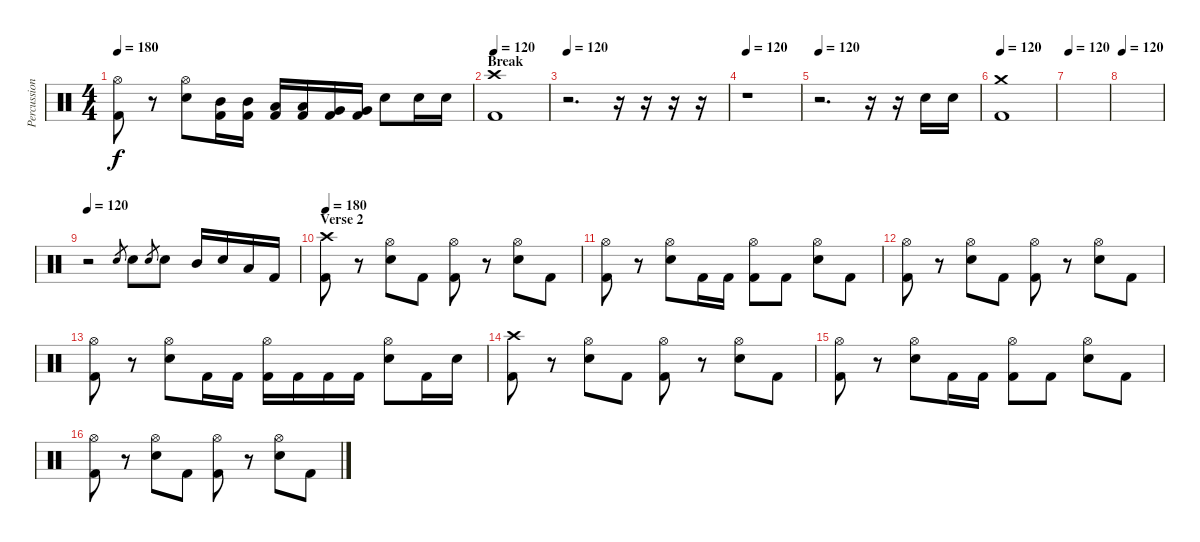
\track ("Percussion" "Percussion") {instrument percussion}
\staff {score}
\articulation defaults
\ts (4 4)
\tempo 180
\clef neutral
\ks c
("Hi-Hat (open)" "Kick (hit) 2").8{dy f} r.8 ("Hi-Hat (open)" "Electric Snare (hit)").8 ("Mid Tom (hit)" "Kick (hit) 2").16 ("Mid Tom (hit)" "Kick (hit) 2").16 ("Low Tom (hit)" "Kick (hit) 2").16 ("Low Tom (hit)" "Kick (hit) 2").16 ("Very Low Tom (hit)" "Kick (hit) 2").16 ("Very Low Tom (hit)" "Kick (hit) 2").16 "Electric Snare (hit)".8 "Electric Snare (hit)".16 "Electric Snare (hit)".16 |
\section ("" "Break")
\tempo 120
("Crash high (hit)" "Kick (hit) 2").1 |
\tempo 120
r.2{d} r.16 r.16 r.16 r.16 |
\tempo 120
r.1 |
\tempo 120
r.2{d} r.16 r.16 "Electric Snare (hit)".16 "Electric Snare (hit)".16 |
\tempo 120
("Crash medium (hit)" "Kick (hit) 2").1 |
\tempo 120
|
\tempo 120
|
\tempo 120
r.2 "Electric Snare (hit)".8{gr} "Electric Snare (hit)".8 "Electric Snare (hit)".8{gr} "Electric Snare (hit)".8 "Mid Tom (hit)".16 "Electric Snare (hit)".16 "Low Tom (hit)".16 "Kick (hit) 2".16 |
\section ("" "Verse 2")
\tempo 180
("Crash high (hit)" "Kick (hit) 2").8 r.8 ("Hi-Hat (open)" "Electric Snare (hit)").8 "Kick (hit) 2".8 ("Hi-Hat (open)" "Kick (hit) 2").8 r.8 ("Hi-Hat (open)" "Electric Snare (hit)").8 "Kick (hit) 2".8 |
("Hi-Hat (open)" "Kick (hit) 2").8 r.8 ("Hi-Hat (open)" "Electric Snare (hit)").8 "Kick (hit) 2".16 "Kick (hit) 2".16 ("Hi-Hat (open)" "Kick (hit) 2").8 "Kick (hit) 2".8 ("Hi-Hat (open)" "Electric Snare (hit)").8 "Kick (hit) 2".8 |
("Hi-Hat (open)" "Kick (hit) 2").8 r.8 ("Hi-Hat (open)" "Electric Snare (hit)").8 "Kick (hit) 2".8 ("Hi-Hat (open)" "Kick (hit) 2").8 r.8 ("Hi-Hat (open)" "Electric Snare (hit)").8 "Kick (hit) 2".8 |
("Hi-Hat (open)" "Kick (hit) 2").8 r.8 ("Hi-Hat (open)" "Electric Snare (hit)").8 "Kick (hit) 2".16 "Kick (hit) 2".16 ("Hi-Hat (open)" "Kick (hit) 2").16 "Kick (hit) 2".16 "Kick (hit) 2".16 "Kick (hit) 2".16 ("Hi-Hat (open)" "Electric Snare (hit)").8 "Kick (hit) 2".16 "Electric Snare (hit)".16 |
("Crash high (hit)" "Kick (hit) 2").8 r.8 ("Hi-Hat (open)" "Electric Snare (hit)").8 "Kick (hit) 2".8 ("Hi-Hat (open)" "Kick (hit) 2").8 r.8 ("Hi-Hat (open)" "Electric Snare (hit)").8 "Kick (hit) 2".8 |
("Hi-Hat (open)" "Kick (hit) 2").8 r.8 ("Hi-Hat (open)" "Electric Snare (hit)").8 "Kick (hit) 2".16 "Kick (hit) 2".16 ("Hi-Hat (open)" "Kick (hit) 2").8 "Kick (hit) 2".8 ("Hi-Hat (open)" "Electric Snare (hit)").8 "Kick (hit) 2".8 |
("Hi-Hat (open)" "Kick (hit) 2").8 r.8 ("Hi-Hat (open)" "Electric Snare (hit)").8 "Kick (hit) 2".8 ("Hi-Hat (open)" "Kick (hit) 2").8 r.8 ("Hi-Hat (open)" "Electric Snare (hit)").8 "Kick (hit) 2".8
